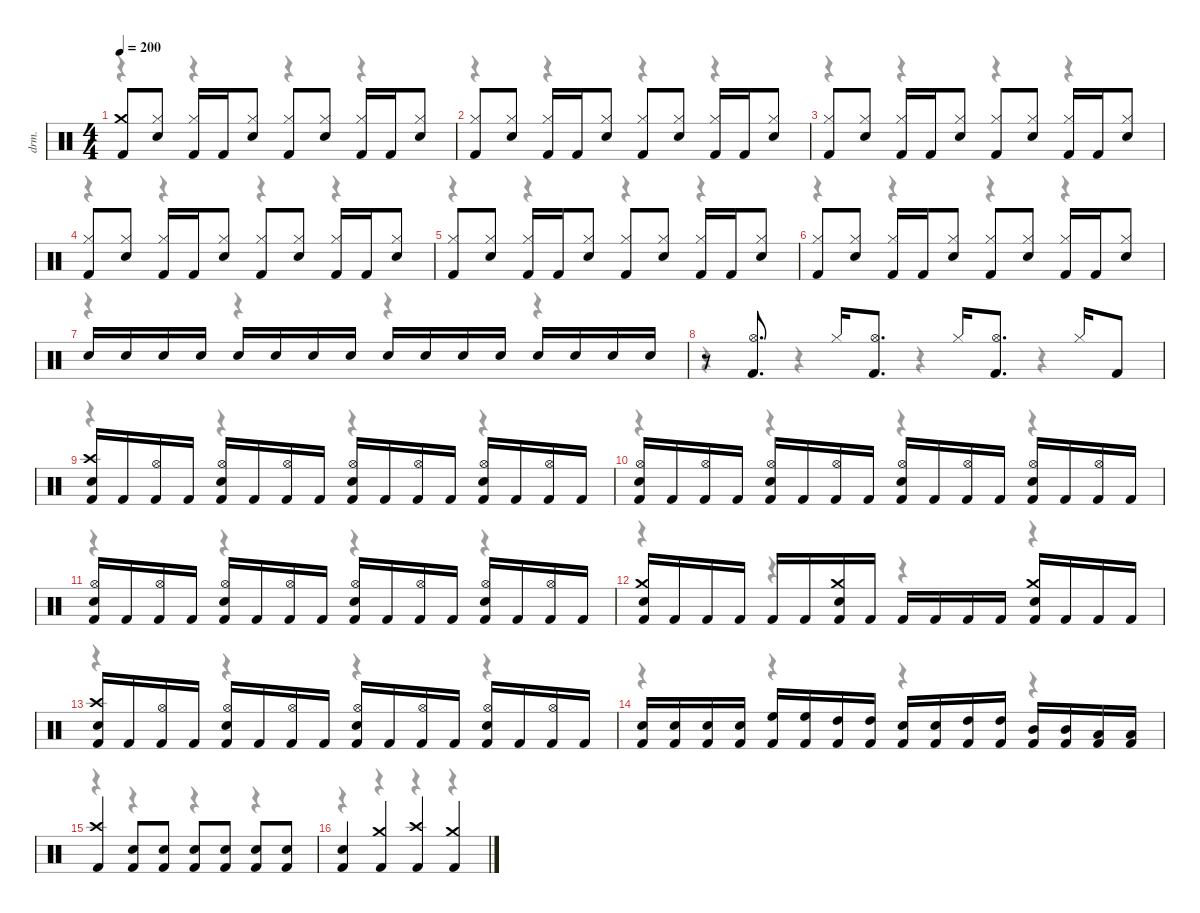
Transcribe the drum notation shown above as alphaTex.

\hideDynamics
\bracketExtendMode nobrackets
\otherSystemsTrackNameOrientation horizontal
\track ("Drums" "drm.") {instrument percussion}
\staff {score}
\articulation defaults
\voice
\ts (4 4)
\section ("" "")
\scale
0.991149
\tempo 200
\accidentals auto
\clef neutral
\ottava regular
\simile none
\ks c
("Kick (hit) 2" "Crash medium (hit)").8{dy f} ("Snare (hit) 2" "Hi-Hat (closed)").8 ("Kick (hit) 2" "Hi-Hat (closed)").16 "Kick (hit) 2".16 ("Snare (hit) 2" "Hi-Hat (closed)").8 ("Kick (hit) 2" "Hi-Hat (closed)").8 ("Snare (hit) 2" "Hi-Hat (closed)").8 ("Kick (hit) 2" "Hi-Hat (closed)").16 "Kick (hit) 2".16 ("Snare (hit) 2" "Hi-Hat (closed)").8 |
\scale
0.991149 ("Kick (hit) 2" "Hi-Hat (closed)").8 ("Snare (hit) 2" "Hi-Hat (closed)").8 ("Kick (hit) 2" "Hi-Hat (closed)").16 "Kick (hit) 2".16 ("Snare (hit) 2" "Hi-Hat (closed)").8 ("Kick (hit) 2" "Hi-Hat (closed)").8 ("Snare (hit) 2" "Hi-Hat (closed)").8 ("Kick (hit) 2" "Hi-Hat (closed)").16 "Kick (hit) 2".16 ("Snare (hit) 2" "Hi-Hat (closed)").8 |
\scale
1.05826 ("Kick (hit) 2" "Hi-Hat (closed)").8 ("Snare (hit) 2" "Hi-Hat (closed)").8 ("Kick (hit) 2" "Hi-Hat (closed)").16 "Kick (hit) 2".16 ("Snare (hit) 2" "Hi-Hat (closed)").8 ("Kick (hit) 2" "Hi-Hat (closed)").8 ("Snare (hit) 2" "Hi-Hat (closed)").8 ("Kick (hit) 2" "Hi-Hat (closed)").16 "Kick (hit) 2".16 ("Snare (hit) 2" "Hi-Hat (closed)").8 |
\scale
0.977051 ("Kick (hit) 2" "Hi-Hat (closed)").8 ("Snare (hit) 2" "Hi-Hat (closed)").8 ("Kick (hit) 2" "Hi-Hat (closed)").16 "Kick (hit) 2".16 ("Snare (hit) 2" "Hi-Hat (closed)").8 ("Kick (hit) 2" "Hi-Hat (closed)").8 ("Snare (hit) 2" "Hi-Hat (closed)").8 ("Kick (hit) 2" "Hi-Hat (closed)").16 "Kick (hit) 2".16 ("Snare (hit) 2" "Hi-Hat (closed)").8 |
\scale
0.977051 ("Kick (hit) 2" "Hi-Hat (closed)").8 ("Snare (hit) 2" "Hi-Hat (closed)").8 ("Kick (hit) 2" "Hi-Hat (closed)").16 "Kick (hit) 2".16 ("Snare (hit) 2" "Hi-Hat (closed)").8 ("Kick (hit) 2" "Hi-Hat (closed)").8 ("Snare (hit) 2" "Hi-Hat (closed)").8 ("Kick (hit) 2" "Hi-Hat (closed)").16 "Kick (hit) 2".16 ("Snare (hit) 2" "Hi-Hat (closed)").8 |
\scale
0.977051 ("Kick (hit) 2" "Hi-Hat (closed)").8 ("Snare (hit) 2" "Hi-Hat (closed)").8 ("Kick (hit) 2" "Hi-Hat (closed)").16 "Kick (hit) 2".16 ("Snare (hit) 2" "Hi-Hat (closed)").8 ("Kick (hit) 2" "Hi-Hat (closed)").8 ("Snare (hit) 2" "Hi-Hat (closed)").8 ("Kick (hit) 2" "Hi-Hat (closed)").16 "Kick (hit) 2".16 ("Snare (hit) 2" "Hi-Hat (closed)").8 |
\scale
0.999117 "Snare (hit) 2".16 "Snare (hit) 2".16 "Snare (hit) 2".16 "Snare (hit) 2".16 "Snare (hit) 2".16 "Snare (hit) 2".16 "Snare (hit) 2".16 "Snare (hit) 2".16 "Snare (hit) 2".16 "Snare (hit) 2".16 "Snare (hit) 2".16 "Snare (hit) 2".16 "Snare (hit) 2".16 "Snare (hit) 2".16 "Snare (hit) 2".16 "Snare (hit) 2".16 |
\scale
1.01147 r.8 ("Kick (hit) 2" "Hi-Hat (open)").8{d} "Hi-Hat (closed)".16{dy ppp} ("Kick (hit) 2" "Hi-Hat (open)").8{d dy f} "Hi-Hat (closed)".16{dy ppp} ("Kick (hit) 2" "Hi-Hat (open)").8{d dy f} "Hi-Hat (closed)".16{dy ppp} "Kick (hit) 2".8{dy f} |
\section ("" "")
\scale
1.07196 ("Kick (hit) 2" "Snare (hit) 2" "Crash high (hit)").16 "Kick (hit) 2".16 ("Kick (hit) 2" "Hi-Hat (open)").16 "Kick (hit) 2".16 ("Kick (hit) 2" "Snare (hit) 2" "Hi-Hat (open)").16 "Kick (hit) 2".16 ("Kick (hit) 2" "Hi-Hat (open)").16 "Kick (hit) 2".16 ("Kick (hit) 2" "Snare (hit) 2" "Hi-Hat (open)").16 "Kick (hit) 2".16 ("Kick (hit) 2" "Hi-Hat (open)").16 "Kick (hit) 2".16 ("Kick (hit) 2" "Snare (hit) 2" "Hi-Hat (open)").16 "Kick (hit) 2".16 ("Kick (hit) 2" "Hi-Hat (open)").16 "Kick (hit) 2".16 |
\scale
0.987079 ("Kick (hit) 2" "Snare (hit) 2" "Hi-Hat (open)").16 "Kick (hit) 2".16 ("Kick (hit) 2" "Hi-Hat (open)").16 "Kick (hit) 2".16 ("Kick (hit) 2" "Snare (hit) 2" "Hi-Hat (open)").16 "Kick (hit) 2".16 ("Kick (hit) 2" "Hi-Hat (open)").16 "Kick (hit) 2".16 ("Kick (hit) 2" "Snare (hit) 2" "Hi-Hat (open)").16 "Kick (hit) 2".16 ("Kick (hit) 2" "Hi-Hat (open)").16 "Kick (hit) 2".16 ("Kick (hit) 2" "Snare (hit) 2" "Hi-Hat (open)").16 "Kick (hit) 2".16 ("Kick (hit) 2" "Hi-Hat (open)").16 "Kick (hit) 2".16 |
\scale
0.987079 ("Kick (hit) 2" "Snare (hit) 2" "Hi-Hat (open)").16 "Kick (hit) 2".16 ("Kick (hit) 2" "Hi-Hat (open)").16 "Kick (hit) 2".16 ("Kick (hit) 2" "Snare (hit) 2" "Hi-Hat (open)").16 "Kick (hit) 2".16 ("Kick (hit) 2" "Hi-Hat (open)").16 "Kick (hit) 2".16 ("Kick (hit) 2" "Snare (hit) 2" "Hi-Hat (open)").16 "Kick (hit) 2".16 ("Kick (hit) 2" "Hi-Hat (open)").16 "Kick (hit) 2".16 ("Kick (hit) 2" "Snare (hit) 2" "Hi-Hat (open)").16 "Kick (hit) 2".16 ("Kick (hit) 2" "Hi-Hat (open)").16 "Kick (hit) 2".16 |
\scale
0.987079 ("Kick (hit) 2" "Snare (hit) 2" "Crash medium (hit)").16 "Kick (hit) 2".16 "Kick (hit) 2".16 "Kick (hit) 2".16 "Kick (hit) 2".16 "Kick (hit) 2".16 ("Kick (hit) 2" "Snare (hit) 2" "Crash medium (hit)").16 "Kick (hit) 2".16 "Kick (hit) 2".16 "Kick (hit) 2".16 "Kick (hit) 2".16 "Kick (hit) 2".16 ("Kick (hit) 2" "Snare (hit) 2" "Crash medium (hit)").16 "Kick (hit) 2".16 "Kick (hit) 2".16 "Kick (hit) 2".16 |
\scale
0.979723 ("Kick (hit) 2" "Snare (hit) 2" "Crash high (hit)").16 "Kick (hit) 2".16 ("Kick (hit) 2" "Hi-Hat (open)").16 "Kick (hit) 2".16 ("Kick (hit) 2" "Snare (hit) 2" "Hi-Hat (open)").16 "Kick (hit) 2".16 ("Kick (hit) 2" "Hi-Hat (open)").16 "Kick (hit) 2".16 ("Kick (hit) 2" "Snare (hit) 2" "Hi-Hat (open)").16 "Kick (hit) 2".16 ("Kick (hit) 2" "Hi-Hat (open)").16 "Kick (hit) 2".16 ("Kick (hit) 2" "Snare (hit) 2" "Hi-Hat (open)").16 "Kick (hit) 2".16 ("Kick (hit) 2" "Hi-Hat (open)").16 "Kick (hit) 2".16 |
\scale
0.987079 ("Kick (hit) 2" "Snare (hit) 2").16 ("Kick (hit) 2" "Snare (hit) 2").16 ("Kick (hit) 2" "Snare (hit) 2").16 ("Kick (hit) 2" "Snare (hit) 2").16 ("Kick (hit) 2" "High Floor Tom (hit)").16 ("Kick (hit) 2" "High Floor Tom (hit)").16 ("Kick (hit) 2" "High Tom (hit)").16 ("Kick (hit) 2" "High Tom (hit)").16 ("Kick (hit) 2" "Snare (hit) 2").16 ("Kick (hit) 2" "Snare (hit) 2").16 ("Kick (hit) 2" "High Tom (hit)").16 ("Kick (hit) 2" "High Tom (hit)").16 ("Kick (hit) 2" "Mid Tom (hit)").16 ("Kick (hit) 2" "Mid Tom (hit)").16 ("Kick (hit) 2" "Low Tom (hit)").16 ("Kick (hit) 2" "Low Tom (hit)").16 |
\scale
1.07174 ("Kick (hit) 2" "Crash high (hit)").4 ("Kick (hit) 2" "Snare (hit) 2").8 ("Kick (hit) 2" "Snare (hit) 2").8 ("Kick (hit) 2" "Snare (hit) 2").8 ("Kick (hit) 2" "Snare (hit) 2").8 ("Kick (hit) 2" "Snare (hit) 2").8 ("Kick (hit) 2" "Snare (hit) 2").8 |
\scale
0.995538 ("Kick (hit) 2" "Snare (hit) 2").4 ("Kick (hit) 2" "Crash medium (hit)").4 ("Kick (hit) 2" "Crash high (hit)").4 ("Kick (hit) 2" "Crash medium (hit)").4
\voice
\clef neutral
\ottava regular
\simile none
\ks c
r.4{dy mf} r.4 r.4 r.4 |
r.4 r.4 r.4 r.4 |
r.4 r.4 r.4 r.4 |
r.4 r.4 r.4 r.4 |
r.4 r.4 r.4 r.4 |
r.4 r.4 r.4 r.4 |
r.4 r.4 r.4 r.4 |
r.4 r.4 r.4 r.4 |
r.4 r.4 r.4 r.4 |
r.4 r.4 r.4 r.4 |
r.4 r.4 r.4 r.4 |
r.4 r.4 r.4 r.4 |
r.4 r.4 r.4 r.4 |
r.4 r.4 r.4 r.4 |
r.4 r.4 r.4 r.4 |
r.4 r.4 r.4 r.4
